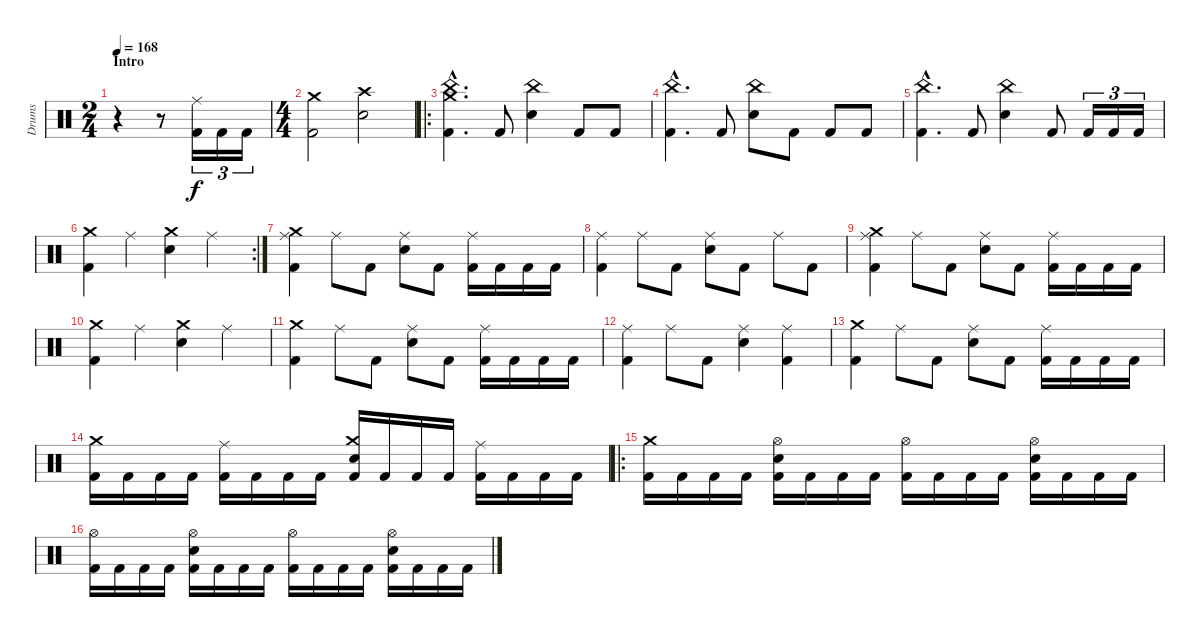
\track ("Drums" "Drums") {instrument percussion}
\staff {score}
\articulation defaults
\ts (2 4)
\section ("" "Intro")
\tempo 168
\clef neutral
\ks c
r.4{dy f} r.8 ("Kick (hit) 2" "Ride (middle)").16{tu (3 2)} "Kick (hit) 2".16{tu (3 2)} "Kick (hit) 2".16{tu (3 2)} |
\ts (4 4)
("Kick (hit) 2" "Crash medium (hit)").2 ("Snare (hit) 2" "Crash high (hit)").2 |
\ro
("Kick (hit) 2"{hac} "China (hit)"{hac} "Crash medium (hit)"{hac}).4{d} "Kick (hit) 2".8 ("Snare (hit) 2" "China (hit)").4 "Kick (hit) 2".8 "Kick (hit) 2".8 |
("Kick (hit) 2"{hac} "China (hit)"{hac}).4{d} "Kick (hit) 2".8 ("Snare (hit) 2" "China (hit)").8 "Kick (hit) 2".8 "Kick (hit) 2".8 "Kick (hit) 2".8 |
("Kick (hit) 2"{hac} "China (hit)"{hac}).4{d} "Kick (hit) 2".8 ("Snare (hit) 2" "China (hit)").4 "Kick (hit) 2".8 "Kick (hit) 2".16{tu (3 2)} "Kick (hit) 2".16{tu (3 2)} "Kick (hit) 2".16{tu (3 2)} |
\rc 2
("Kick (hit) 2" "Crash medium (hit)").4 "Ride (middle)".4 ("Snare (hit) 2" "Crash medium (hit)").4 "Ride (middle)".4 |
("Kick (hit) 2" "Ride (middle)" "Crash medium (hit)").4 "Ride (middle)".8 "Kick (hit) 2".8 ("Snare (hit) 2" "Ride (middle)").8 "Kick (hit) 2".8 ("Kick (hit) 2" "Ride (middle)").16 "Kick (hit) 2".16 "Kick (hit) 2".16 "Kick (hit) 2".16 |
("Kick (hit) 2" "Ride (middle)").4 "Ride (middle)".8 "Kick (hit) 2".8 ("Snare (hit) 2" "Ride (middle)").8 "Kick (hit) 2".8 "Ride (middle)".8 "Kick (hit) 2".8 |
("Kick (hit) 2" "Ride (middle)" "Crash medium (hit)").4 "Ride (middle)".8 "Kick (hit) 2".8 ("Snare (hit) 2" "Ride (middle)").8 "Kick (hit) 2".8 ("Kick (hit) 2" "Ride (middle)").16 "Kick (hit) 2".16 "Kick (hit) 2".16 "Kick (hit) 2".16 |
("Kick (hit) 2" "Crash medium (hit)").4 "Ride (middle)".4 ("Snare (hit) 2" "Crash medium (hit)").4 "Ride (middle)".4 |
("Kick (hit) 2" "Crash medium (hit)").4 "Ride (middle)".8 "Kick (hit) 2".8 ("Snare (hit) 2" "Ride (middle)").8 "Kick (hit) 2".8 ("Kick (hit) 2" "Ride (middle)").16 "Kick (hit) 2".16 "Kick (hit) 2".16 "Kick (hit) 2".16 |
("Kick (hit) 2" "Ride (middle)").4 "Ride (middle)".8 "Kick (hit) 2".8 ("Snare (hit) 2" "Ride (middle)").4 ("Kick (hit) 2" "Ride (middle)").4 |
("Kick (hit) 2" "Crash medium (hit)").4 "Ride (middle)".8 "Kick (hit) 2".8 ("Snare (hit) 2" "Ride (middle)").8 "Kick (hit) 2".8 ("Kick (hit) 2" "Ride (middle)").16 "Kick (hit) 2".16 "Kick (hit) 2".16 "Kick (hit) 2".16 |
("Kick (hit) 2" "Crash medium (hit)").16 "Kick (hit) 2".16 "Kick (hit) 2".16 "Kick (hit) 2".16 ("Kick (hit) 2" "Ride (middle)").16 "Kick (hit) 2".16 "Kick (hit) 2".16 "Kick (hit) 2".16 ("Kick (hit) 2" "Snare (hit) 2" "Crash medium (hit)").16 "Kick (hit) 2".16 "Kick (hit) 2".16 "Kick (hit) 2".16 ("Kick (hit) 2" "Ride (middle)").16 "Kick (hit) 2".16 "Kick (hit) 2".16 "Kick (hit) 2".16 |
\ro
("Kick (hit) 2" "Crash medium (hit)").16 "Kick (hit) 2".16 "Kick (hit) 2".16 "Kick (hit) 2".16 ("Kick (hit) 2" "Snare (hit) 2" "Hi-Hat (open)").16 "Kick (hit) 2".16 "Kick (hit) 2".16 "Kick (hit) 2".16 ("Kick (hit) 2" "Hi-Hat (open)").16 "Kick (hit) 2".16 "Kick (hit) 2".16 "Kick (hit) 2".16 ("Kick (hit) 2" "Snare (hit) 2" "Hi-Hat (open)").16 "Kick (hit) 2".16 "Kick (hit) 2".16 "Kick (hit) 2".16 |
("Kick (hit) 2" "Hi-Hat (open)").16 "Kick (hit) 2".16 "Kick (hit) 2".16 "Kick (hit) 2".16 ("Kick (hit) 2" "Snare (hit) 2" "Hi-Hat (open)").16 "Kick (hit) 2".16 "Kick (hit) 2".16 "Kick (hit) 2".16 ("Kick (hit) 2" "Hi-Hat (open)").16 "Kick (hit) 2".16 "Kick (hit) 2".16 "Kick (hit) 2".16 ("Kick (hit) 2" "Snare (hit) 2" "Hi-Hat (open)").16 "Kick (hit) 2".16 "Kick (hit) 2".16 "Kick (hit) 2".16
